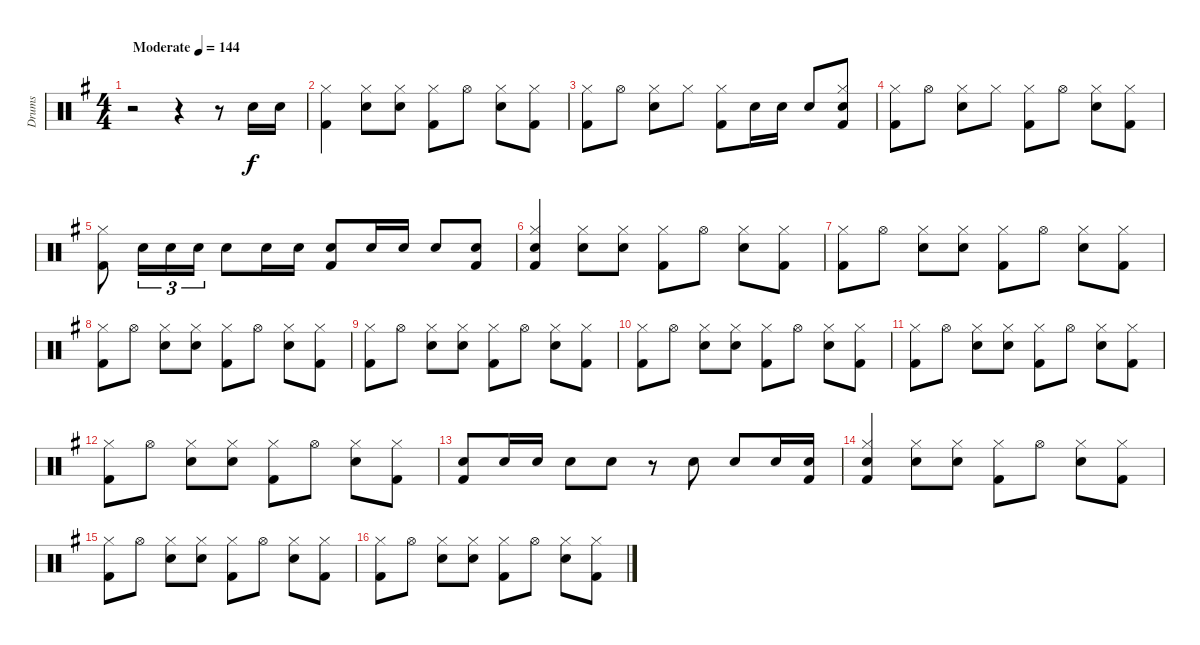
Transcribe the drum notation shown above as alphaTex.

\track ("Drums" "Drums") {instrument percussion}
\staff {score}
\articulation defaults
\ts (4 4)
\tempo (144 "Moderate")
\clef neutral
\ks g
r.2{dy f} r.4 r.8 "Snare (hit) 2".16 "Snare (hit) 2".16 |
("Hi-Hat (closed)" "Kick (hit) 2").4 ("Hi-Hat (closed)" "Snare (hit) 2").8 ("Hi-Hat (closed)" "Snare (hit) 2").8 ("Hi-Hat (closed)" "Kick (hit) 2").8 "Hi-Hat (open)".8 ("Hi-Hat (closed)" "Snare (hit) 2").8 ("Hi-Hat (closed)" "Kick (hit) 2").8 |
("Hi-Hat (closed)" "Kick (hit) 2").8 "Hi-Hat (open)".8 ("Hi-Hat (closed)" "Snare (hit) 2").8 "Hi-Hat (closed)".8 ("Hi-Hat (closed)" "Kick (hit) 2").8 "Snare (hit) 2".16 "Snare (hit) 2".16 "Snare (hit) 2".8 ("Hi-Hat (closed)" "Snare (hit) 2" "Kick (hit) 2").8 |
("Hi-Hat (closed)" "Kick (hit) 2").8 "Hi-Hat (open)".8 ("Hi-Hat (closed)" "Snare (hit) 2").8 "Hi-Hat (closed)".8 ("Hi-Hat (closed)" "Kick (hit) 2").8 "Hi-Hat (open)".8 ("Hi-Hat (closed)" "Snare (hit) 2").8 ("Hi-Hat (closed)" "Kick (hit) 2").8 |
("Hi-Hat (closed)" "Kick (hit) 2").8 "Snare (hit) 2".16{tu (3 2)} "Snare (hit) 2".16{tu (3 2)} "Snare (hit) 2".16{tu (3 2)} "Snare (hit) 2".8 "Snare (hit) 2".16 "Snare (hit) 2".16 ("Snare (hit) 2" "Kick (hit) 2").8 "Snare (hit) 2".16 "Snare (hit) 2".16 "Snare (hit) 2".8 ("Snare (hit) 2" "Kick (hit) 2").8 |
("Hi-Hat (closed)" "Snare (hit) 2" "Kick (hit) 2").4 ("Hi-Hat (closed)" "Snare (hit) 2").8 ("Hi-Hat (closed)" "Snare (hit) 2").8 ("Hi-Hat (closed)" "Kick (hit) 2").8 "Hi-Hat (open)".8 ("Hi-Hat (closed)" "Snare (hit) 2").8 ("Hi-Hat (closed)" "Kick (hit) 2").8 |
("Hi-Hat (closed)" "Kick (hit) 2").8 "Hi-Hat (open)".8 ("Hi-Hat (closed)" "Snare (hit) 2").8 ("Hi-Hat (closed)" "Snare (hit) 2").8 ("Hi-Hat (closed)" "Kick (hit) 2").8 "Hi-Hat (open)".8 ("Hi-Hat (closed)" "Snare (hit) 2").8 ("Hi-Hat (closed)" "Kick (hit) 2").8 |
("Hi-Hat (closed)" "Kick (hit) 2").8 "Hi-Hat (open)".8 ("Hi-Hat (closed)" "Snare (hit) 2").8 ("Hi-Hat (closed)" "Snare (hit) 2").8 ("Hi-Hat (closed)" "Kick (hit) 2").8 "Hi-Hat (open)".8 ("Hi-Hat (closed)" "Snare (hit) 2").8 ("Hi-Hat (closed)" "Kick (hit) 2").8 |
("Hi-Hat (closed)" "Kick (hit) 2").8 "Hi-Hat (open)".8 ("Hi-Hat (closed)" "Snare (hit) 2").8 ("Hi-Hat (closed)" "Snare (hit) 2").8 ("Hi-Hat (closed)" "Kick (hit) 2").8 "Hi-Hat (open)".8 ("Hi-Hat (closed)" "Snare (hit) 2").8 ("Hi-Hat (closed)" "Kick (hit) 2").8 |
("Hi-Hat (closed)" "Kick (hit) 2").8 "Hi-Hat (open)".8 ("Hi-Hat (closed)" "Snare (hit) 2").8 ("Hi-Hat (closed)" "Snare (hit) 2").8 ("Hi-Hat (closed)" "Kick (hit) 2").8 "Hi-Hat (open)".8 ("Hi-Hat (closed)" "Snare (hit) 2").8 ("Hi-Hat (closed)" "Kick (hit) 2").8 |
("Hi-Hat (closed)" "Kick (hit) 2").8 "Hi-Hat (open)".8 ("Hi-Hat (closed)" "Snare (hit) 2").8 ("Hi-Hat (closed)" "Snare (hit) 2").8 ("Hi-Hat (closed)" "Kick (hit) 2").8 "Hi-Hat (open)".8 ("Hi-Hat (closed)" "Snare (hit) 2").8 ("Hi-Hat (closed)" "Kick (hit) 2").8 |
("Hi-Hat (closed)" "Kick (hit) 2").8 "Hi-Hat (open)".8 ("Hi-Hat (closed)" "Snare (hit) 2").8 ("Hi-Hat (closed)" "Snare (hit) 2").8 ("Hi-Hat (closed)" "Kick (hit) 2").8 "Hi-Hat (open)".8 ("Hi-Hat (closed)" "Snare (hit) 2").8 ("Hi-Hat (closed)" "Kick (hit) 2").8 |
("Snare (hit) 2" "Kick (hit) 2").8 "Snare (hit) 2".16 "Snare (hit) 2".16 "Snare (hit) 2".8 "Snare (hit) 2".8 r.8 "Snare (hit) 2".8 "Snare (hit) 2".8 "Snare (hit) 2".16 ("Snare (hit) 2" "Kick (hit) 2").16 |
("Hi-Hat (closed)" "Snare (hit) 2" "Kick (hit) 2").4 ("Hi-Hat (closed)" "Snare (hit) 2").8 ("Hi-Hat (closed)" "Snare (hit) 2").8 ("Hi-Hat (closed)" "Kick (hit) 2").8 "Hi-Hat (open)".8 ("Hi-Hat (closed)" "Snare (hit) 2").8 ("Hi-Hat (closed)" "Kick (hit) 2").8 |
("Hi-Hat (closed)" "Kick (hit) 2").8 "Hi-Hat (open)".8 ("Hi-Hat (closed)" "Snare (hit) 2").8 ("Hi-Hat (closed)" "Snare (hit) 2").8 ("Hi-Hat (closed)" "Kick (hit) 2").8 "Hi-Hat (open)".8 ("Hi-Hat (closed)" "Snare (hit) 2").8 ("Hi-Hat (closed)" "Kick (hit) 2").8 |
("Hi-Hat (closed)" "Kick (hit) 2").8 "Hi-Hat (open)".8 ("Hi-Hat (closed)" "Snare (hit) 2").8 ("Hi-Hat (closed)" "Snare (hit) 2").8 ("Hi-Hat (closed)" "Kick (hit) 2").8 "Hi-Hat (open)".8 ("Hi-Hat (closed)" "Snare (hit) 2").8 ("Hi-Hat (closed)" "Kick (hit) 2").8
